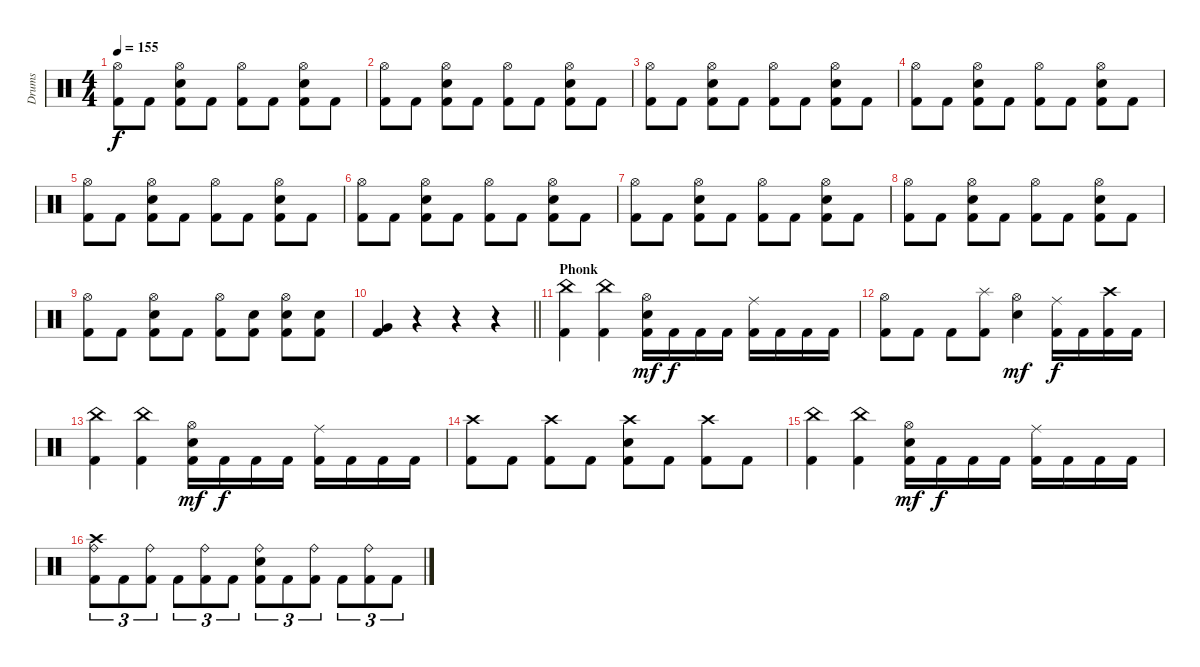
\track ("Drums" "Drums") {instrument percussion}
\staff {score}
\articulation defaults
\ts (4 4)
\tempo 155
\clef neutral
\ks c
("Hi-Hat (open)" "Kick (hit) 2").8{dy f} "Kick (hit) 2".8 ("Hi-Hat (open)" "Snare (hit) 2" "Kick (hit) 2").8 "Kick (hit) 2".8 ("Hi-Hat (open)" "Kick (hit) 2").8 "Kick (hit) 2".8 ("Hi-Hat (open)" "Snare (hit) 2" "Kick (hit) 2").8 "Kick (hit) 2".8 |
("Hi-Hat (open)" "Kick (hit) 2").8 "Kick (hit) 2".8 ("Hi-Hat (open)" "Snare (hit) 2" "Kick (hit) 2").8 "Kick (hit) 2".8 ("Hi-Hat (open)" "Kick (hit) 2").8 "Kick (hit) 2".8 ("Hi-Hat (open)" "Snare (hit) 2" "Kick (hit) 2").8 "Kick (hit) 2".8 |
("Hi-Hat (open)" "Kick (hit) 2").8 "Kick (hit) 2".8 ("Hi-Hat (open)" "Snare (hit) 2" "Kick (hit) 2").8 "Kick (hit) 2".8 ("Hi-Hat (open)" "Kick (hit) 2").8 "Kick (hit) 2".8 ("Hi-Hat (open)" "Snare (hit) 2" "Kick (hit) 2").8 "Kick (hit) 2".8 |
("Hi-Hat (open)" "Kick (hit) 2").8 "Kick (hit) 2".8 ("Hi-Hat (open)" "Snare (hit) 2" "Kick (hit) 2").8 "Kick (hit) 2".8 ("Hi-Hat (open)" "Kick (hit) 2").8 "Kick (hit) 2".8 ("Hi-Hat (open)" "Snare (hit) 2" "Kick (hit) 2").8 "Kick (hit) 2".8 |
("Hi-Hat (open)" "Kick (hit) 2").8 "Kick (hit) 2".8 ("Hi-Hat (open)" "Snare (hit) 2" "Kick (hit) 2").8 "Kick (hit) 2".8 ("Hi-Hat (open)" "Kick (hit) 2").8 "Kick (hit) 2".8 ("Hi-Hat (open)" "Snare (hit) 2" "Kick (hit) 2").8 "Kick (hit) 2".8 |
("Hi-Hat (open)" "Kick (hit) 2").8 "Kick (hit) 2".8 ("Hi-Hat (open)" "Snare (hit) 2" "Kick (hit) 2").8 "Kick (hit) 2".8 ("Hi-Hat (open)" "Kick (hit) 2").8 "Kick (hit) 2".8 ("Hi-Hat (open)" "Snare (hit) 2" "Kick (hit) 2").8 "Kick (hit) 2".8 |
("Hi-Hat (open)" "Kick (hit) 2").8 "Kick (hit) 2".8 ("Hi-Hat (open)" "Snare (hit) 2" "Kick (hit) 2").8 "Kick (hit) 2".8 ("Hi-Hat (open)" "Kick (hit) 2").8 "Kick (hit) 2".8 ("Hi-Hat (open)" "Snare (hit) 2" "Kick (hit) 2").8 "Kick (hit) 2".8 |
("Hi-Hat (open)" "Kick (hit) 2").8 "Kick (hit) 2".8 ("Hi-Hat (open)" "Snare (hit) 2" "Kick (hit) 2").8 "Kick (hit) 2".8 ("Hi-Hat (open)" "Kick (hit) 2").8 "Kick (hit) 2".8 ("Hi-Hat (open)" "Snare (hit) 2" "Kick (hit) 2").8 "Kick (hit) 2".8 |
("Hi-Hat (open)" "Kick (hit) 2").8 "Kick (hit) 2".8 ("Hi-Hat (open)" "Snare (hit) 2" "Kick (hit) 2").8 "Kick (hit) 2".8 ("Hi-Hat (open)" "Kick (hit) 2").8 ("Snare (hit) 2" "Kick (hit) 2").8 ("Hi-Hat (open)" "Snare (hit) 2" "Kick (hit) 2").8 ("Snare (hit) 2" "Kick (hit) 2").8 |
\barLineRight lightlight
("Very Low Tom (hit)" "Kick (hit) 2").4 r.4 r.4 r.4 |
\section ("" "Phonk")
("China (hit)" "Kick (hit) 2").4 ("China (hit)" "Kick (hit) 2").4 ("Hi-Hat (open)" "Snare (hit) 2" "Kick (hit) 2").16{dy mf} "Kick (hit) 2".16{dy f} "Kick (hit) 2".16 "Kick (hit) 2".16 ("Ride (middle)" "Kick (hit) 2").16 "Kick (hit) 2".16 "Kick (hit) 2".16 "Kick (hit) 2".16 |
("Hi-Hat (open)" "Kick (hit) 2").8 "Kick (hit) 2".8 "Kick (hit) 2".8 ("Splash (hit)" "Kick (hit) 2").8 ("Hi-Hat (open)" "Snare (hit) 2").4{dy mf} ("Ride (middle)" "Kick (hit) 2").16{dy f} "Kick (hit) 2".16 ("Crash high (hit)" "Kick (hit) 2").16 "Kick (hit) 2".16 |
("China (hit)" "Kick (hit) 2").4 ("China (hit)" "Kick (hit) 2").4 ("Hi-Hat (open)" "Snare (hit) 2" "Kick (hit) 2").16{dy mf} "Kick (hit) 2".16{dy f} "Kick (hit) 2".16 "Kick (hit) 2".16 ("Ride (middle)" "Kick (hit) 2").16 "Kick (hit) 2".16 "Kick (hit) 2".16 "Kick (hit) 2".16 |
("Crash high (hit)" "Kick (hit) 2").8 "Kick (hit) 2".8 ("Crash high (hit)" "Kick (hit) 2").8 "Kick (hit) 2".8 ("Crash high (hit)" "Snare (hit) 2" "Kick (hit) 2").8 "Kick (hit) 2".8 ("Crash high (hit)" "Kick (hit) 2").8 "Kick (hit) 2".8 |
("China (hit)" "Kick (hit) 2").4 ("China (hit)" "Kick (hit) 2").4 ("Hi-Hat (open)" "Snare (hit) 2" "Kick (hit) 2").16{dy mf} "Kick (hit) 2".16{dy f} "Kick (hit) 2".16 "Kick (hit) 2".16 ("Ride (middle)" "Kick (hit) 2").16 "Kick (hit) 2".16 "Kick (hit) 2".16 "Kick (hit) 2".16 |
("Crash high (hit)" "Ride (bell)" "Kick (hit) 2").8{tu (3 2)} "Kick (hit) 2".8{tu (3 2)} ("Ride (bell)" "Kick (hit) 2").8{tu (3 2)} "Kick (hit) 2".8{tu (3 2)} ("Ride (bell)" "Kick (hit) 2").8{tu (3 2)} "Kick (hit) 2".8{tu (3 2)} ("Ride (bell)" "Snare (hit) 2" "Kick (hit) 2").8{tu (3 2)} "Kick (hit) 2".8{tu (3 2)} ("Ride (bell)" "Kick (hit) 2").8{tu (3 2)} "Kick (hit) 2".8{tu (3 2)} ("Ride (bell)" "Kick (hit) 2").8{tu (3 2)} "Kick (hit) 2".8{tu (3 2)}
